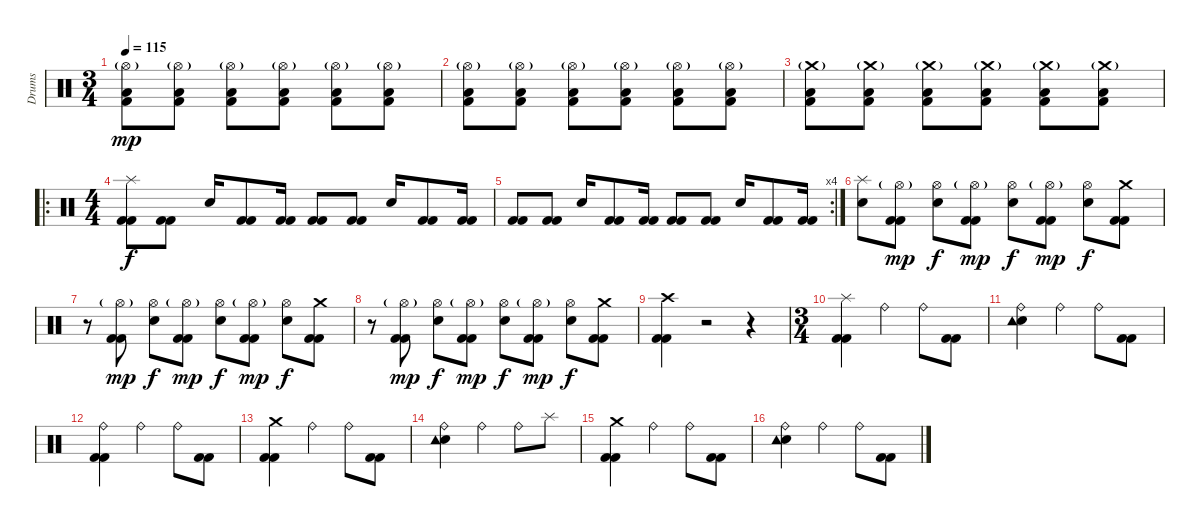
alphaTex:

\track ("Drums" "Drums") {instrument percussion}
\staff {score}
\articulation defaults
\ts (3 4)
\tempo 115
\clef neutral
\ks c
("Hi-Hat (open)"{g} "Low Tom (hit)" "Kick (hit) 2").8{dy mp} ("Hi-Hat (open)"{g} "Low Tom (hit)" "Kick (hit) 2").8 ("Hi-Hat (open)"{g} "Low Tom (hit)" "Kick (hit) 2").8 ("Hi-Hat (open)"{g} "Low Tom (hit)" "Kick (hit) 2").8 ("Hi-Hat (open)"{g} "Low Tom (hit)" "Kick (hit) 2").8 ("Hi-Hat (open)"{g} "Low Tom (hit)" "Kick (hit) 2").8 |
("Hi-Hat (open)"{g} "Low Tom (hit)" "Kick (hit) 2").8 ("Hi-Hat (open)"{g} "Low Tom (hit)" "Kick (hit) 2").8 ("Hi-Hat (open)"{g} "Low Tom (hit)" "Kick (hit) 2").8 ("Hi-Hat (open)"{g} "Low Tom (hit)" "Kick (hit) 2").8 ("Hi-Hat (open)"{g} "Low Tom (hit)" "Kick (hit) 2").8 ("Hi-Hat (open)"{g} "Low Tom (hit)" "Kick (hit) 2").8 |
("Crash medium (hit)"{g} "Low Tom (hit)" "Kick (hit) 2").8 ("Crash medium (hit)"{g} "Low Tom (hit)" "Kick (hit) 2").8 ("Crash medium (hit)"{g} "Low Tom (hit)" "Kick (hit) 2").8 ("Crash medium (hit)"{g} "Low Tom (hit)" "Kick (hit) 2").8 ("Crash medium (hit)"{g} "Low Tom (hit)" "Kick (hit) 2").8 ("Crash medium (hit)"{g} "Low Tom (hit)" "Kick (hit) 2").8 |
\ro
\ts (4 4)
("Splash (hit)" "Kick (hit) 2" "Kick (hit) 2").8{dy f} ("Kick (hit) 2" "Kick (hit) 2").8 "Electric Snare (hit)".16 ("Kick (hit) 2" "Kick (hit) 2").8 ("Kick (hit) 2" "Kick (hit) 2").16 ("Kick (hit) 2" "Kick (hit) 2").8 ("Kick (hit) 2" "Kick (hit) 2").8 "Electric Snare (hit)".16 ("Kick (hit) 2" "Kick (hit) 2").8 ("Kick (hit) 2" "Kick (hit) 2").16 |
\rc 4
("Kick (hit) 2" "Kick (hit) 2").8 ("Kick (hit) 2" "Kick (hit) 2").8 "Electric Snare (hit)".16 ("Kick (hit) 2" "Kick (hit) 2").8 ("Kick (hit) 2" "Kick (hit) 2").16 ("Kick (hit) 2" "Kick (hit) 2").8 ("Kick (hit) 2" "Kick (hit) 2").8 "Electric Snare (hit)".16 ("Kick (hit) 2" "Kick (hit) 2").8 ("Kick (hit) 2" "Kick (hit) 2").16 |
("Splash (hit)" "Electric Snare (hit)").8 ("Hi-Hat (open)"{g} "Kick (hit) 2" "Kick (hit) 2").8{dy mp} ("Hi-Hat (open)" "Electric Snare (hit)").8{dy f} ("Hi-Hat (open)"{g} "Kick (hit) 2" "Kick (hit) 2").8{dy mp} ("Hi-Hat (open)" "Electric Snare (hit)").8{dy f} ("Hi-Hat (open)"{g} "Kick (hit) 2" "Kick (hit) 2").8{dy mp} ("Hi-Hat (open)" "Electric Snare (hit)").8{dy f} ("Crash medium (hit)" "Kick (hit) 2" "Kick (hit) 2").8 |
r.8 ("Hi-Hat (open)"{g} "Kick (hit) 2" "Kick (hit) 2").8{dy mp} ("Hi-Hat (open)" "Electric Snare (hit)").8{dy f} ("Hi-Hat (open)"{g} "Kick (hit) 2" "Kick (hit) 2").8{dy mp} ("Hi-Hat (open)" "Electric Snare (hit)").8{dy f} ("Hi-Hat (open)"{g} "Kick (hit) 2" "Kick (hit) 2").8{dy mp} ("Hi-Hat (open)" "Electric Snare (hit)").8{dy f} ("Crash medium (hit)" "Kick (hit) 2" "Kick (hit) 2").8 |
r.8 ("Hi-Hat (open)"{g} "Kick (hit) 2" "Kick (hit) 2").8{dy mp} ("Hi-Hat (open)" "Electric Snare (hit)").8{dy f} ("Hi-Hat (open)"{g} "Kick (hit) 2" "Kick (hit) 2").8{dy mp} ("Hi-Hat (open)" "Electric Snare (hit)").8{dy f} ("Hi-Hat (open)"{g} "Kick (hit) 2" "Kick (hit) 2").8{dy mp} ("Hi-Hat (open)" "Electric Snare (hit)").8{dy f} ("Crash medium (hit)" "Kick (hit) 2" "Kick (hit) 2").8 |
("Crash high (hit)" "Kick (hit) 2" "Kick (hit) 2").4 r.2 r.4 |
\ts (3 4)
("Splash (hit)" "Kick (hit) 2" "Kick (hit) 2").4 "Ride (bell)".4 "Ride (bell)".8 ("Kick (hit) 2" "Kick (hit) 2").8 |
("Ride (bell)" "Electric Snare (hit)" "Tambourine (hit)").4 "Ride (bell)".4 "Ride (bell)".8 ("Kick (hit) 2" "Kick (hit) 2").8 |
("Ride (bell)" "Kick (hit) 2" "Kick (hit) 2").4 "Ride (bell)".4 "Ride (bell)".8 ("Kick (hit) 2" "Kick (hit) 2").8 |
("Crash medium (hit)" "Kick (hit) 2" "Kick (hit) 2").4 "Ride (bell)".4 "Ride (bell)".8 ("Kick (hit) 2" "Kick (hit) 2").8 |
("Ride (bell)" "Electric Snare (hit)" "Tambourine (hit)").4 "Ride (bell)".4 "Ride (bell)".8 "Splash (hit)".8 |
("Crash medium (hit)" "Kick (hit) 2" "Kick (hit) 2").4 "Ride (bell)".4 "Ride (bell)".8 ("Kick (hit) 2" "Kick (hit) 2").8 |
("Ride (bell)" "Electric Snare (hit)" "Tambourine (hit)").4 "Ride (bell)".4 "Ride (bell)".8 ("Kick (hit) 2" "Kick (hit) 2").8
